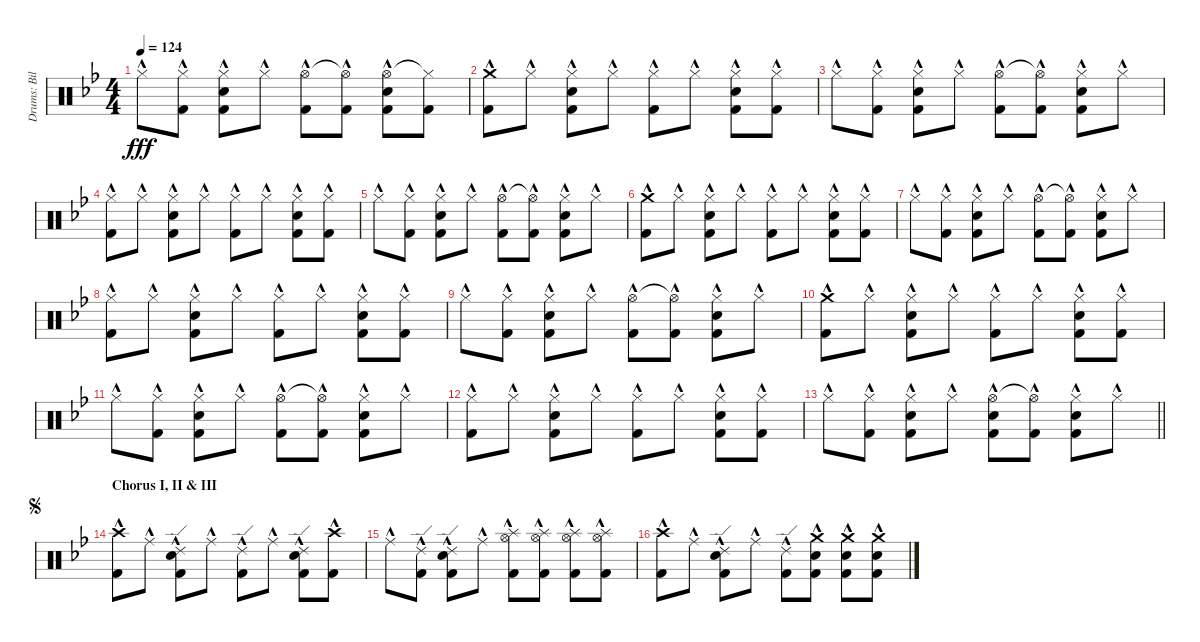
\track ("Drums: Bill" "Drums: Bil") {instrument percussion}
\staff {score}
\articulation defaults
\ts (4 4)
\tempo 124
\clef neutral
\ks bb "Hi-Hat (closed)"{hac}.8{dy fff}
("Hi-Hat (closed)"{hac} "Kick (hit) 2"{hac}).8 ("Hi-Hat (closed)"{hac} "Snare (hit) 2"{hac} "Kick (hit) 2"{hac}).8 "Hi-Hat (closed)"{hac}.8 ("Hi-Hat (open)"{hac} "Kick (hit) 2"{hac}).8 ("Hi-Hat (open)"{t} "Kick (hit) 2"{hac}).8 ("Hi-Hat (open)"{hac} "Snare (hit) 2"{hac} "Kick (hit) 2"{hac}).8 ("Hi-Hat (closed)"{t} "Kick (hit) 2").8 |
("Crash medium (hit)"{hac} "Kick (hit) 2"{hac}).8 "Hi-Hat (closed)"{hac}.8 ("Hi-Hat (closed)"{hac} "Snare (hit) 2"{hac} "Kick (hit) 2"{hac}).8 "Hi-Hat (closed)"{hac}.8 ("Hi-Hat (closed)"{hac} "Kick (hit) 2"{hac}).8 "Hi-Hat (closed)"{hac}.8 ("Hi-Hat (closed)"{hac} "Snare (hit) 2"{hac} "Kick (hit) 2"{hac}).8 ("Hi-Hat (closed)"{hac} "Kick (hit) 2"{hac}).8 |
"Hi-Hat (closed)"{hac}.8 ("Hi-Hat (closed)"{hac} "Kick (hit) 2"{hac}).8 ("Hi-Hat (closed)"{hac} "Snare (hit) 2"{hac} "Kick (hit) 2"{hac}).8 "Hi-Hat (closed)"{hac}.8 ("Hi-Hat (open)"{hac} "Kick (hit) 2"{hac}).8 ("Hi-Hat (open)"{t} "Kick (hit) 2"{hac}).8 ("Hi-Hat (closed)"{hac} "Snare (hit) 2"{hac} "Kick (hit) 2"{hac}).8 "Hi-Hat (closed)"{hac}.8 |
("Hi-Hat (closed)"{hac} "Kick (hit) 2"{hac}).8 "Hi-Hat (closed)"{hac}.8 ("Hi-Hat (closed)"{hac} "Snare (hit) 2"{hac} "Kick (hit) 2"{hac}).8 "Hi-Hat (closed)"{hac}.8 ("Hi-Hat (closed)"{hac} "Kick (hit) 2"{hac}).8 "Hi-Hat (closed)"{hac}.8 ("Hi-Hat (closed)"{hac} "Snare (hit) 2"{hac} "Kick (hit) 2"{hac}).8 ("Hi-Hat (closed)"{hac} "Kick (hit) 2"{hac}).8 |
"Hi-Hat (closed)"{hac}.8 ("Hi-Hat (closed)"{hac} "Kick (hit) 2"{hac}).8 ("Hi-Hat (closed)"{hac} "Snare (hit) 2"{hac} "Kick (hit) 2"{hac}).8 "Hi-Hat (closed)"{hac}.8 ("Hi-Hat (open)"{hac} "Kick (hit) 2"{hac}).8 ("Hi-Hat (open)"{t} "Kick (hit) 2"{hac}).8 ("Hi-Hat (closed)"{hac} "Snare (hit) 2"{hac} "Kick (hit) 2"{hac}).8 "Hi-Hat (closed)"{hac}.8 |
("Crash medium (hit)"{hac} "Kick (hit) 2"{hac}).8 "Hi-Hat (closed)"{hac}.8 ("Hi-Hat (closed)"{hac} "Snare (hit) 2"{hac} "Kick (hit) 2"{hac}).8 "Hi-Hat (closed)"{hac}.8 ("Hi-Hat (closed)"{hac} "Kick (hit) 2"{hac}).8 "Hi-Hat (closed)"{hac}.8 ("Hi-Hat (closed)"{hac} "Snare (hit) 2"{hac} "Kick (hit) 2"{hac}).8 ("Hi-Hat (closed)"{hac} "Kick (hit) 2"{hac}).8 |
"Hi-Hat (closed)"{hac}.8 ("Hi-Hat (closed)"{hac} "Kick (hit) 2"{hac}).8 ("Hi-Hat (closed)"{hac} "Snare (hit) 2"{hac} "Kick (hit) 2"{hac}).8 "Hi-Hat (closed)"{hac}.8 ("Hi-Hat (open)"{hac} "Kick (hit) 2"{hac}).8 ("Hi-Hat (open)"{t} "Kick (hit) 2"{hac}).8 ("Hi-Hat (closed)"{hac} "Snare (hit) 2"{hac} "Kick (hit) 2"{hac}).8 "Hi-Hat (closed)"{hac}.8 |
("Hi-Hat (closed)"{hac} "Kick (hit) 2"{hac}).8 "Hi-Hat (closed)"{hac}.8 ("Hi-Hat (closed)"{hac} "Snare (hit) 2"{hac} "Kick (hit) 2"{hac}).8 "Hi-Hat (closed)"{hac}.8 ("Hi-Hat (closed)"{hac} "Kick (hit) 2"{hac}).8 "Hi-Hat (closed)"{hac}.8 ("Hi-Hat (closed)"{hac} "Snare (hit) 2"{hac} "Kick (hit) 2"{hac}).8 ("Hi-Hat (closed)"{hac} "Kick (hit) 2"{hac}).8 |
"Hi-Hat (closed)"{hac}.8 ("Hi-Hat (closed)"{hac} "Kick (hit) 2"{hac}).8 ("Hi-Hat (closed)"{hac} "Snare (hit) 2"{hac} "Kick (hit) 2"{hac}).8 "Hi-Hat (closed)"{hac}.8 ("Hi-Hat (open)"{hac} "Kick (hit) 2"{hac}).8 ("Hi-Hat (open)"{t} "Kick (hit) 2"{hac}).8 ("Hi-Hat (closed)"{hac} "Snare (hit) 2"{hac} "Kick (hit) 2"{hac}).8 "Hi-Hat (closed)"{hac}.8 |
("Crash medium (hit)"{hac} "Kick (hit) 2"{hac}).8 "Hi-Hat (closed)"{hac}.8 ("Hi-Hat (closed)"{hac} "Snare (hit) 2"{hac} "Kick (hit) 2"{hac}).8 "Hi-Hat (closed)"{hac}.8 ("Hi-Hat (closed)"{hac} "Kick (hit) 2"{hac}).8 "Hi-Hat (closed)"{hac}.8 ("Hi-Hat (closed)"{hac} "Snare (hit) 2"{hac} "Kick (hit) 2"{hac}).8 ("Hi-Hat (closed)"{hac} "Kick (hit) 2"{hac}).8 |
"Hi-Hat (closed)"{hac}.8 ("Hi-Hat (closed)"{hac} "Kick (hit) 2"{hac}).8 ("Hi-Hat (closed)"{hac} "Snare (hit) 2"{hac} "Kick (hit) 2"{hac}).8 "Hi-Hat (closed)"{hac}.8 ("Hi-Hat (open)"{hac} "Kick (hit) 2"{hac}).8 ("Hi-Hat (open)"{t} "Kick (hit) 2"{hac}).8 ("Hi-Hat (closed)"{hac} "Snare (hit) 2"{hac} "Kick (hit) 2"{hac}).8 "Hi-Hat (closed)"{hac}.8 |
("Hi-Hat (closed)"{hac} "Kick (hit) 2"{hac}).8 "Hi-Hat (closed)"{hac}.8 ("Hi-Hat (closed)"{hac} "Snare (hit) 2"{hac} "Kick (hit) 2"{hac}).8 "Hi-Hat (closed)"{hac}.8 ("Hi-Hat (closed)"{hac} "Kick (hit) 2"{hac}).8 "Hi-Hat (closed)"{hac}.8 ("Hi-Hat (closed)"{hac} "Snare (hit) 2"{hac} "Kick (hit) 2"{hac}).8 ("Hi-Hat (closed)"{hac} "Kick (hit) 2"{hac}).8 |
\barLineRight lightlight "Hi-Hat (closed)"{hac}.8
("Hi-Hat (closed)"{hac} "Kick (hit) 2"{hac}).8 ("Hi-Hat (closed)"{hac} "Snare (hit) 2"{hac} "Kick (hit) 2"{hac}).8 "Hi-Hat (closed)"{hac}.8 ("Hi-Hat (open)"{hac} "Snare (hit) 2"{hac} "Kick (hit) 2"{hac}).8 ("Hi-Hat (open)"{t} "Kick (hit) 2"{hac}).8 ("Hi-Hat (closed)"{hac} "Snare (hit) 2"{hac} "Kick (hit) 2"{hac}).8 "Hi-Hat (closed)"{hac}.8 |
\section ("" "Chorus I, II & III")
\jump segno
("Crash high (hit)"{hac} "Kick (hit) 2"{hac}).8 "Ride (middle)"{hac}.8 ("Ride (edge) 2"{hac} "Snare (hit) 2"{hac} "Kick (hit) 2"{hac}).8 "Ride (middle)"{hac}.8 ("Ride (edge) 2"{hac} "Kick (hit) 2"{hac}).8 "Ride (middle)"{hac}.8 ("Ride (edge) 2"{hac} "Snare (hit) 2"{hac} "Kick (hit) 2"{hac}).8 ("Crash high (hit)"{hac} "Kick (hit) 2"{hac}).8 |
"Ride (middle)"{hac}.8 ("Ride (edge) 2"{hac} "Kick (hit) 2"{hac}).8 ("Ride (edge) 2"{hac} "Snare (hit) 2"{hac} "Kick (hit) 2"{hac}).8 "Ride (middle)"{hac}.8 ("Splash (hit)"{hac} "Hi-Hat (open)"{hac} "Kick (hit) 2"{hac}).8 ("Splash (hit)"{hac} "Hi-Hat (open)"{hac} "Kick (hit) 2"{hac}).8 ("Splash (hit)"{hac} "Hi-Hat (open)"{hac} "Kick (hit) 2"{hac}).8 ("Splash (hit)"{hac} "Hi-Hat (open)"{hac} "Kick (hit) 2"{hac}).8 |
("Crash high (hit)"{hac} "Kick (hit) 2"{hac}).8 "Ride (middle)"{hac}.8 ("Ride (edge) 2"{hac} "Snare (hit) 2"{hac} "Kick (hit) 2"{hac}).8 "Ride (middle)"{hac}.8 ("Ride (edge) 2"{hac} "Kick (hit) 2"{hac}).8 ("Crash medium (hit)"{hac} "Snare (hit) 2"{hac} "Kick (hit) 2"{hac}).8 ("Crash medium (hit)"{hac} "Snare (hit) 2"{hac} "Kick (hit) 2"{hac}).8 ("Crash medium (hit)"{hac} "Snare (hit) 2"{hac} "Kick (hit) 2"{hac}).8
